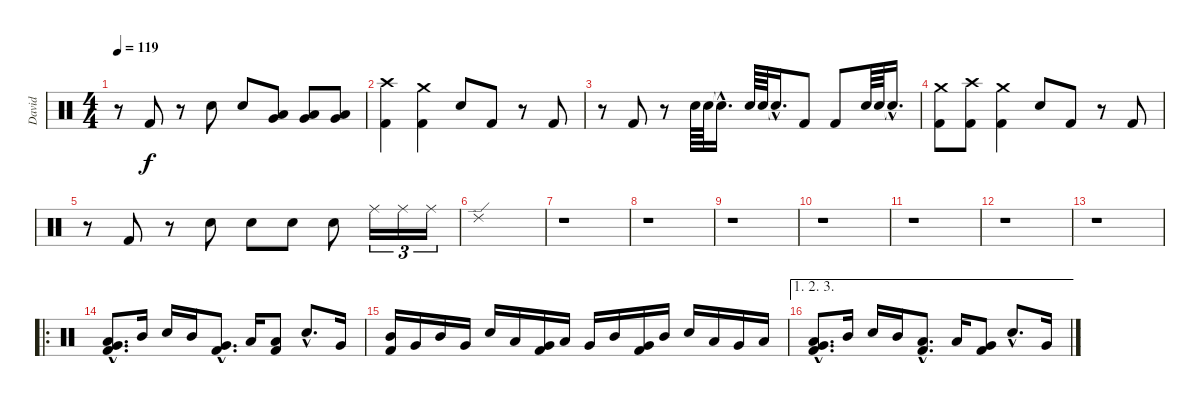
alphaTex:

\track ("David" "David") {instrument percussion}
\staff {score}
\articulation defaults
\ts (4 4)
\tempo 119
\clef neutral
\ks c
r.8{dy f} "Kick (hit) 2".8 r.8 "Snare (hit) 2".8 "Snare (hit) 2".8 ("Low Tom (hit)" "Very Low Tom (hit)").8 ("Low Tom (hit)" "Very Low Tom (hit)").8 ("Very Low Tom (hit)" "Low Floor Tom (hit)").8 |
("Crash high (hit)" "Kick (hit) 2").4 ("Crash medium (hit)" "Kick (hit) 2").4 "Snare (hit) 2".8 "Kick (hit) 2".8 r.8 "Kick (hit) 2".8 |
r.8 "Kick (hit) 2".8 r.8 "Snare (hit) 2".64 "Snare (hit) 2".64 "Snare (hit)"{hac t}.16{d} "Snare (hit) 2".64 "Snare (hit) 2".64 "Snare (hit)"{hac t}.16{d} "Kick (hit) 2".8 "Kick (hit) 2".8 "Snare (hit) 2".64 "Snare (hit) 2".64 "Snare (hit)"{hac t}.16{d} |
("Crash medium (hit)" "Kick (hit) 2").8 ("Crash high (hit)" "Kick (hit) 2").8 ("Crash medium (hit)" "Kick (hit) 2").4 "Snare (hit) 2".8 "Kick (hit) 2".8 r.8 "Kick (hit) 2".8 |
r.8 "Kick (hit) 2".8 r.8 "Snare (hit) 2".8 "Snare (hit) 2".8 "Snare (hit) 2".8 "Snare (hit) 2".8 "Ride (middle)".16{tu (3 2)} "Ride (middle)".16{tu (3 2)} "Ride (middle)".16{tu (3 2)} |
"Ride (edge) 2".1 |
r.1 |
r.1 |
r.1 |
r.1 |
r.1 |
r.1 |
r.1 |
\ro
("Low Tom (hit)"{hac} "Very Low Tom (hit)"{hac} "Kick (hit) 2"{hac}).8{d} "Mid Tom (hit)".16 "Snare (hit) 2".16 "Mid Tom (hit)".16 ("Very Low Tom (hit)"{hac} "Kick (hit) 2"{hac}).8{d} "Low Tom (hit)".16 ("Low Floor Tom (hit)" "Kick (hit) 2").8 "Snare (hit) 2"{hac}.8{d} "Very Low Tom (hit)".16 |
("Mid Tom (hit)" "Kick (hit) 2").16 "Very Low Tom (hit)".16 "Mid Tom (hit)".16 "Very Low Tom (hit)".16 "Snare (hit) 2".16 "Low Tom (hit)".16 ("Very Low Tom (hit)" "Kick (hit) 2").16 "Low Tom (hit)".16 "Very Low Tom (hit)".16 "Mid Tom (hit)".16 ("Very Low Tom (hit)" "Kick (hit) 2").16 "Mid Tom (hit)".16 "Snare (hit) 2".16 "Low Tom (hit)".16 "Very Low Tom (hit)".16 "Low Floor Tom (hit)".16 |
\ae (1 2 3)
("Low Tom (hit)"{hac} "Very Low Tom (hit)"{hac} "Kick (hit) 2"{hac}).8{d} "Mid Tom (hit)".16 "Snare (hit) 2".16 "Mid Tom (hit)".16 ("Low Tom (hit)"{hac} "Kick (hit) 2"{hac}).8{d} "Low Tom (hit)".16 ("Very Low Tom (hit)" "Kick (hit) 2").8 "Snare (hit) 2"{hac}.8{d} "Very Low Tom (hit)".16
